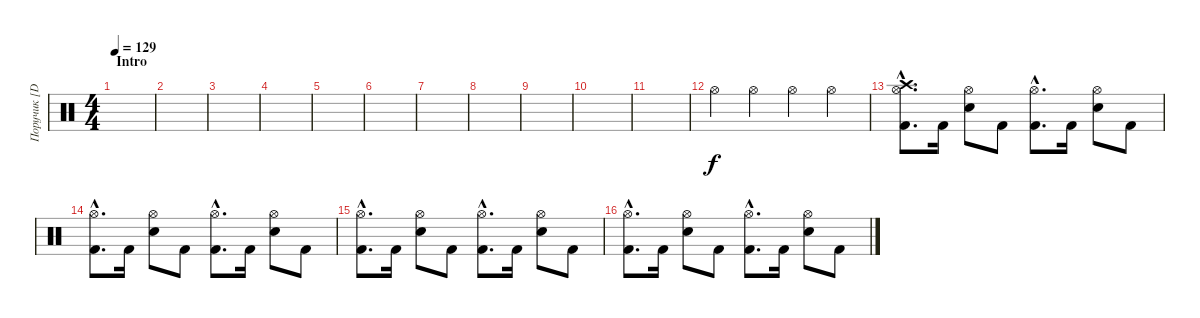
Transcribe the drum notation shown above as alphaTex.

\track ("Поручик [Drums]" "Поручик [D") {instrument percussion}
\staff {score}
\articulation defaults
\ts (4 4)
\section ("" "Intro")
\tempo 129
\clef neutral
\ks c
|
|
|
|
|
|
|
|
|
|
|
"Hi-Hat (open)".4 "Hi-Hat (open)".4 "Hi-Hat (open)".4 "Hi-Hat (open)".4 |
("Crash high (hit)"{hac} "Hi-Hat (open)"{hac} "Kick (hit) 2"{hac}).8{d} "Kick (hit) 2".16 ("Hi-Hat (open)" "Snare (hit) 2").8 "Kick (hit) 2".8 ("Hi-Hat (open)"{hac} "Kick (hit) 2"{hac}).8{d} "Kick (hit) 2".16 ("Hi-Hat (open)" "Snare (hit) 2").8 "Kick (hit) 2".8 |
("Hi-Hat (open)"{hac} "Kick (hit) 2"{hac}).8{d} "Kick (hit) 2".16 ("Hi-Hat (open)" "Snare (hit) 2").8 "Kick (hit) 2".8 ("Hi-Hat (open)"{hac} "Kick (hit) 2"{hac}).8{d} "Kick (hit) 2".16 ("Hi-Hat (open)" "Snare (hit) 2").8 "Kick (hit) 2".8 |
("Hi-Hat (open)"{hac} "Kick (hit) 2"{hac}).8{d} "Kick (hit) 2".16 ("Hi-Hat (open)" "Snare (hit) 2").8 "Kick (hit) 2".8 ("Hi-Hat (open)"{hac} "Kick (hit) 2"{hac}).8{d} "Kick (hit) 2".16 ("Hi-Hat (open)" "Snare (hit) 2").8 "Kick (hit) 2".8 |
("Hi-Hat (open)"{hac} "Kick (hit) 2"{hac}).8{d} "Kick (hit) 2".16 ("Hi-Hat (open)" "Snare (hit) 2").8 "Kick (hit) 2".8 ("Hi-Hat (open)"{hac} "Kick (hit) 2"{hac}).8{d} "Kick (hit) 2".16 ("Hi-Hat (open)" "Snare (hit) 2").8 "Kick (hit) 2".8
